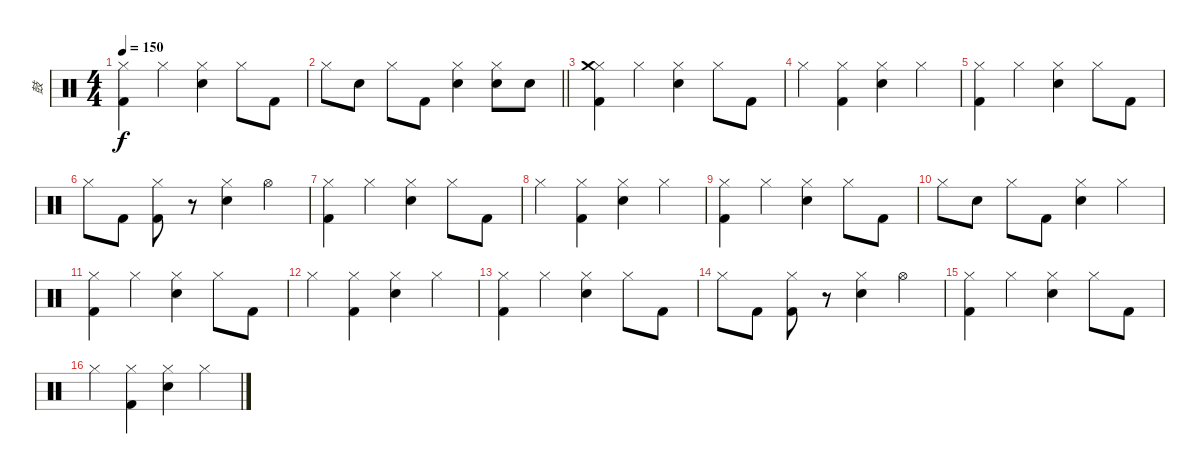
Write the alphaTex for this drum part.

\track ("鼓" "鼓") {instrument percussion}
\staff {score}
\articulation defaults
\ts (4 4)
\tempo 150
\clef neutral
\ks c
("Hi-Hat (closed)" "Kick (hit) 2").4{dy f} "Hi-Hat (closed)".4 ("Hi-Hat (closed)" "Electric Snare (hit)").4 "Hi-Hat (closed)".8 "Kick (hit) 2".8 |
\barLineRight lightlight "Hi-Hat (closed)".8 "Electric Snare (hit)".8 "Hi-Hat (closed)".8 "Kick (hit) 2".8
("Hi-Hat (closed)" "Electric Snare (hit)").4 ("Hi-Hat (closed)" "Electric Snare (hit)").8 "Electric Snare (hit)".8 |
("Hi-Hat (closed)" "Crash medium (hit)" "Kick (hit) 2").4 "Hi-Hat (closed)".4 ("Hi-Hat (closed)" "Electric Snare (hit)").4 "Hi-Hat (closed)".8 "Kick (hit) 2".8 |
"Hi-Hat (closed)".4 ("Hi-Hat (closed)" "Kick (hit) 2").4 ("Hi-Hat (closed)" "Electric Snare (hit)").4 "Hi-Hat (closed)".4 |
("Hi-Hat (closed)" "Kick (hit) 2").4 "Hi-Hat (closed)".4 ("Hi-Hat (closed)" "Electric Snare (hit)").4 "Hi-Hat (closed)".8 "Kick (hit) 2".8 |
"Hi-Hat (closed)".8 "Kick (hit) 2".8 ("Hi-Hat (closed)" "Kick (hit) 2").8 r.8 ("Hi-Hat (closed)" "Electric Snare (hit)").4 "Hi-Hat (open)".4 |
("Hi-Hat (closed)" "Kick (hit) 2").4 "Hi-Hat (closed)".4 ("Hi-Hat (closed)" "Electric Snare (hit)").4 "Hi-Hat (closed)".8 "Kick (hit) 2".8 |
"Hi-Hat (closed)".4 ("Hi-Hat (closed)" "Kick (hit) 2").4 ("Hi-Hat (closed)" "Electric Snare (hit)").4 "Hi-Hat (closed)".4 |
("Hi-Hat (closed)" "Kick (hit) 2").4 "Hi-Hat (closed)".4 ("Hi-Hat (closed)" "Electric Snare (hit)").4 "Hi-Hat (closed)".8 "Kick (hit) 2".8 |
"Hi-Hat (closed)".8 "Electric Snare (hit)".8 "Hi-Hat (closed)".8 "Kick (hit) 2".8 ("Hi-Hat (closed)" "Electric Snare (hit)").4 "Hi-Hat (closed)".4 |
("Hi-Hat (closed)" "Kick (hit) 2").4 "Hi-Hat (closed)".4 ("Hi-Hat (closed)" "Electric Snare (hit)").4 "Hi-Hat (closed)".8 "Kick (hit) 2".8 |
"Hi-Hat (closed)".4 ("Hi-Hat (closed)" "Kick (hit) 2").4 ("Hi-Hat (closed)" "Electric Snare (hit)").4 "Hi-Hat (closed)".4 |
("Hi-Hat (closed)" "Kick (hit) 2").4 "Hi-Hat (closed)".4 ("Hi-Hat (closed)" "Electric Snare (hit)").4 "Hi-Hat (closed)".8 "Kick (hit) 2".8 |
"Hi-Hat (closed)".8 "Kick (hit) 2".8 ("Hi-Hat (closed)" "Kick (hit) 2").8 r.8 ("Hi-Hat (closed)" "Electric Snare (hit)").4 "Hi-Hat (open)".4 |
("Hi-Hat (closed)" "Kick (hit) 2").4 "Hi-Hat (closed)".4 ("Hi-Hat (closed)" "Electric Snare (hit)").4 "Hi-Hat (closed)".8 "Kick (hit) 2".8 |
"Hi-Hat (closed)".4 ("Hi-Hat (closed)" "Kick (hit) 2").4 ("Hi-Hat (closed)" "Electric Snare (hit)").4 "Hi-Hat (closed)".4
